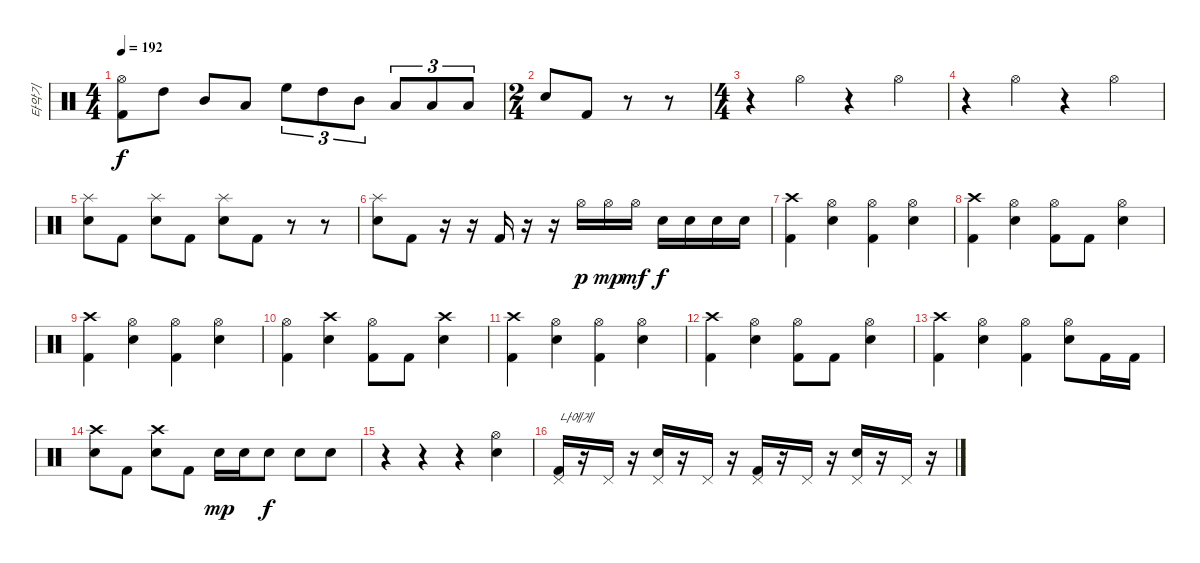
\track ("타악기" "타악기") {instrument percussion}
\staff {score}
\articulation defaults
\ts (4 4)
\tempo 192
\clef neutral
\ks c
("Hi-Hat (open)" "Kick (hit) 2").8{dy f} "High Tom (hit)".8 "Mid Tom (hit)".8 "Low Tom (hit)".8 "High Floor Tom (hit)".8{tu (3 2)} "High Tom (hit)".8{tu (3 2)} "Mid Tom (hit)".8{tu (3 2)} "Low Tom (hit)".8{tu (3 2)} "Low Tom (hit)".8{tu (3 2)} "Low Tom (hit)".8{tu (3 2)} |
\ts (2 4)
"Snare (hit) 2".8 "Kick (hit) 2".8 r.8 r.8 |
\ts (4 4)
r.4 "Hi-Hat (open)".4 r.4 "Hi-Hat (open)".4 |
r.4 "Hi-Hat (open)".4 r.4 "Hi-Hat (open)".4 |
("Splash (hit)" "Snare (hit) 2").8 "Kick (hit) 2".8 ("Splash (hit)" "Snare (hit) 2").8 "Kick (hit) 2".8 ("Splash (hit)" "Snare (hit) 2").8 "Kick (hit) 2".8 r.8 r.8 |
("Splash (hit)" "Snare (hit) 2").8 "Kick (hit) 2".8 r.16 r.16 "Kick (hit) 2".16 r.16 r.16 "Hi-Hat (open)".16{dy p} "Hi-Hat (open)".16{dy mp} "Hi-Hat (open)".16{dy mf} "Snare (hit) 2".16{dy f} "Snare (hit) 2".16 "Snare (hit) 2".16 "Snare (hit) 2".16 |
("Crash high (hit)" "Kick (hit) 2").4 ("Hi-Hat (open)" "Snare (hit) 2").4 ("Hi-Hat (open)" "Kick (hit) 2").4 ("Hi-Hat (open)" "Snare (hit) 2").4 |
("Crash high (hit)" "Kick (hit) 2").4 ("Hi-Hat (open)" "Snare (hit) 2").4 ("Hi-Hat (open)" "Kick (hit) 2").8 "Kick (hit) 2".8 ("Hi-Hat (open)" "Snare (hit) 2").4 |
("Crash high (hit)" "Kick (hit) 2").4 ("Hi-Hat (open)" "Snare (hit) 2").4 ("Hi-Hat (open)" "Kick (hit) 2").4 ("Hi-Hat (open)" "Snare (hit) 2").4 |
("Hi-Hat (open)" "Kick (hit) 2").4 ("Crash high (hit)" "Snare (hit) 2").4 ("Hi-Hat (open)" "Kick (hit) 2").8 "Kick (hit) 2".8 ("Crash high (hit)" "Snare (hit) 2").4 |
("Crash high (hit)" "Kick (hit) 2").4 ("Hi-Hat (open)" "Snare (hit) 2").4 ("Hi-Hat (open)" "Kick (hit) 2").4 ("Hi-Hat (open)" "Snare (hit) 2").4 |
("Crash high (hit)" "Kick (hit) 2").4 ("Hi-Hat (open)" "Snare (hit) 2").4 ("Hi-Hat (open)" "Kick (hit) 2").8 "Kick (hit) 2".8 ("Hi-Hat (open)" "Snare (hit) 2").4 |
("Crash high (hit)" "Kick (hit) 2").4 ("Hi-Hat (open)" "Snare (hit) 2").4 ("Hi-Hat (open)" "Kick (hit) 2").4 ("Hi-Hat (open)" "Snare (hit) 2").8 "Kick (hit) 2".16 "Kick (hit) 2".16 |
("Crash high (hit)" "Snare (hit) 2").8 "Kick (hit) 2".8 ("Crash high (hit)" "Snare (hit) 2").8 "Kick (hit) 2".8 "Snare (hit) 2".16{dy mp} "Snare (hit) 2".16 "Snare (hit) 2".8{dy f} "Snare (hit) 2".8 "Snare (hit) 2".8 |
r.4 r.4 r.4 ("Hi-Hat (open)" "Snare (hit) 2").4 |
("Pedal Hi-Hat (hit)" "Kick (hit) 2").16{txt "나에게"} r.16 "Pedal Hi-Hat (hit)".16 r.16 ("Pedal Hi-Hat (hit)" "Snare (hit) 2").16 r.16 "Pedal Hi-Hat (hit)".16 r.16 ("Pedal Hi-Hat (hit)" "Kick (hit) 2").16 r.16 "Pedal Hi-Hat (hit)".16 r.16 ("Pedal Hi-Hat (hit)" "Snare (hit) 2").16 r.16 "Pedal Hi-Hat (hit)".16 r.16
